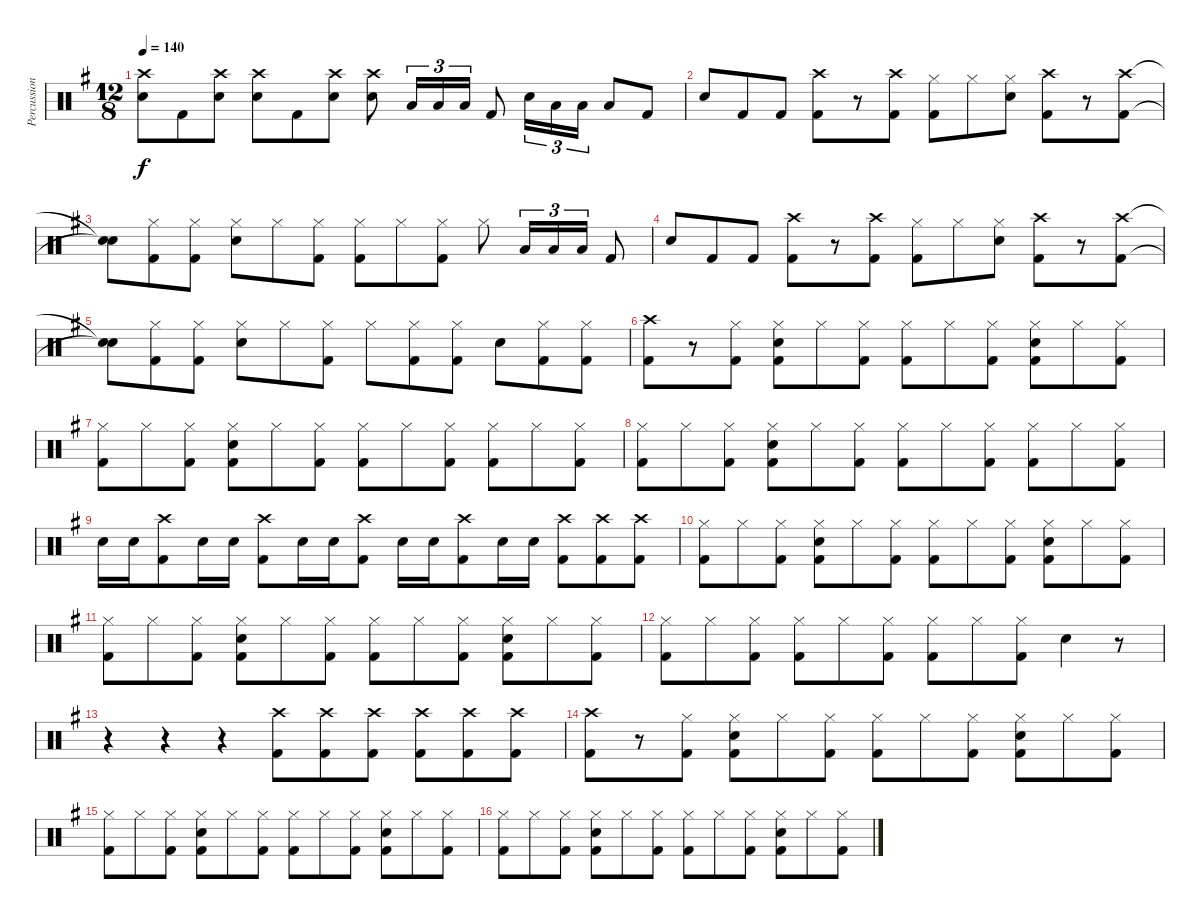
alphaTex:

\track ("Percussion" "Percussion") {instrument percussion}
\staff {score}
\articulation defaults
\ts (12 8)
\tempo 140
\clef neutral
\ks g
("Crash high (hit)" "Snare (hit) 2").8{dy f} "Kick (hit) 2".8 ("Crash high (hit)" "Snare (hit) 2").8 ("Crash high (hit)" "Snare (hit) 2").8 "Kick (hit) 2".8 ("Crash high (hit)" "Snare (hit) 2").8 ("Crash high (hit)" "Snare (hit) 2").8 "Low Tom (hit)".16{tu (3 2)} "Low Tom (hit)".16{tu (3 2)} "Low Tom (hit)".16{tu (3 2)} "Kick (hit) 2".8 "Snare (hit) 2".16{tu (3 2)} "Low Tom (hit)".16{tu (3 2)} "Low Tom (hit)".16{tu (3 2)} "Low Tom (hit)".8 "Kick (hit) 2".8 |
"Snare (hit) 2".8 "Kick (hit) 2".8 "Kick (hit) 2".8 ("Crash high (hit)" "Kick (hit) 2").8 r.8 ("Crash high (hit)" "Kick (hit) 2").8 ("Hi-Hat (closed)" "Kick (hit) 2").8 "Hi-Hat (closed)".8 ("Hi-Hat (closed)" "Snare (hit) 2").8 ("Crash high (hit)" "Kick (hit) 2").8 r.8 ("Crash high (hit)" "Kick (hit) 2").8 |
("Snare (hit)"{t} "Snare (hit)"{t}).8 ("Hi-Hat (closed)" "Kick (hit) 2").8 ("Hi-Hat (closed)" "Kick (hit) 2").8 ("Hi-Hat (closed)" "Snare (hit) 2").8 "Hi-Hat (closed)".8 ("Hi-Hat (closed)" "Kick (hit) 2").8 ("Hi-Hat (closed)" "Kick (hit) 2").8 "Hi-Hat (closed)".8 ("Hi-Hat (closed)" "Kick (hit) 2").8 "Hi-Hat (closed)".8 "Low Tom (hit)".16{tu (3 2)} "Low Tom (hit)".16{tu (3 2)} "Low Tom (hit)".16{tu (3 2)} "Kick (hit) 2".8 |
"Snare (hit) 2".8 "Kick (hit) 2".8 "Kick (hit) 2".8 ("Crash high (hit)" "Kick (hit) 2").8 r.8 ("Crash high (hit)" "Kick (hit) 2").8 ("Hi-Hat (closed)" "Kick (hit) 2").8 "Hi-Hat (closed)".8 ("Hi-Hat (closed)" "Snare (hit) 2").8 ("Crash high (hit)" "Kick (hit) 2").8 r.8 ("Crash high (hit)" "Kick (hit) 2").8 |
("Snare (hit)"{t} "Snare (hit)"{t}).8 ("Hi-Hat (closed)" "Kick (hit) 2").8 ("Hi-Hat (closed)" "Kick (hit) 2").8 ("Hi-Hat (closed)" "Snare (hit) 2").8 "Hi-Hat (closed)".8 ("Hi-Hat (closed)" "Kick (hit) 2").8 "Hi-Hat (closed)".8 ("Hi-Hat (closed)" "Kick (hit) 2").8 ("Hi-Hat (closed)" "Kick (hit) 2").8 "Snare (hit) 2".8 ("Hi-Hat (closed)" "Kick (hit) 2").8 ("Hi-Hat (closed)" "Kick (hit) 2").8 |
("Crash high (hit)" "Kick (hit) 2").8 r.8 ("Hi-Hat (closed)" "Kick (hit) 2").8 ("Hi-Hat (closed)" "Snare (hit) 2" "Kick (hit) 2").8 "Hi-Hat (closed)".8 ("Hi-Hat (closed)" "Kick (hit) 2").8 ("Hi-Hat (closed)" "Kick (hit) 2").8 "Hi-Hat (closed)".8 ("Hi-Hat (closed)" "Kick (hit) 2").8 ("Hi-Hat (closed)" "Snare (hit) 2" "Kick (hit) 2").8 "Hi-Hat (closed)".8 ("Hi-Hat (closed)" "Kick (hit) 2").8 |
("Hi-Hat (closed)" "Kick (hit) 2").8 "Hi-Hat (closed)".8 ("Hi-Hat (closed)" "Kick (hit) 2").8 ("Hi-Hat (closed)" "Snare (hit) 2" "Kick (hit) 2").8 "Hi-Hat (closed)".8 ("Hi-Hat (closed)" "Kick (hit) 2").8 ("Hi-Hat (closed)" "Kick (hit) 2").8 "Hi-Hat (closed)".8 ("Hi-Hat (closed)" "Kick (hit) 2").8 ("Hi-Hat (closed)" "Kick (hit) 2").8 "Hi-Hat (closed)".8 ("Hi-Hat (closed)" "Kick (hit) 2").8 |
("Hi-Hat (closed)" "Kick (hit) 2").8 "Hi-Hat (closed)".8 ("Hi-Hat (closed)" "Kick (hit) 2").8 ("Hi-Hat (closed)" "Snare (hit) 2" "Kick (hit) 2").8 "Hi-Hat (closed)".8 ("Hi-Hat (closed)" "Kick (hit) 2").8 ("Hi-Hat (closed)" "Kick (hit) 2").8 "Hi-Hat (closed)".8 ("Hi-Hat (closed)" "Kick (hit) 2").8 ("Hi-Hat (closed)" "Kick (hit) 2").8 "Hi-Hat (closed)".8 ("Hi-Hat (closed)" "Kick (hit) 2").8 |
"Snare (hit) 2".16 "Snare (hit) 2".16 ("Crash high (hit)" "Kick (hit) 2").8 "Snare (hit) 2".16 "Snare (hit) 2".16 ("Crash high (hit)" "Kick (hit) 2").8 "Snare (hit) 2".16 "Snare (hit) 2".16 ("Crash high (hit)" "Kick (hit) 2").8 "Snare (hit) 2".16 "Snare (hit) 2".16 ("Crash high (hit)" "Kick (hit) 2").8 "Snare (hit) 2".16 "Snare (hit) 2".16 ("Crash high (hit)" "Kick (hit) 2").8 ("Crash high (hit)" "Kick (hit) 2").8 ("Crash high (hit)" "Kick (hit) 2").8 |
("Hi-Hat (closed)" "Kick (hit) 2").8 "Hi-Hat (closed)".8 ("Hi-Hat (closed)" "Kick (hit) 2").8 ("Hi-Hat (closed)" "Snare (hit) 2" "Kick (hit) 2").8 "Hi-Hat (closed)".8 ("Hi-Hat (closed)" "Kick (hit) 2").8 ("Hi-Hat (closed)" "Kick (hit) 2").8 "Hi-Hat (closed)".8 ("Hi-Hat (closed)" "Kick (hit) 2").8 ("Hi-Hat (closed)" "Snare (hit) 2" "Kick (hit) 2").8 "Hi-Hat (closed)".8 ("Hi-Hat (closed)" "Kick (hit) 2").8 |
("Hi-Hat (closed)" "Kick (hit) 2").8 "Hi-Hat (closed)".8 ("Hi-Hat (closed)" "Kick (hit) 2").8 ("Hi-Hat (closed)" "Snare (hit) 2" "Kick (hit) 2").8 "Hi-Hat (closed)".8 ("Hi-Hat (closed)" "Kick (hit) 2").8 ("Hi-Hat (closed)" "Kick (hit) 2").8 "Hi-Hat (closed)".8 ("Hi-Hat (closed)" "Kick (hit) 2").8 ("Hi-Hat (closed)" "Snare (hit) 2" "Kick (hit) 2").8 "Hi-Hat (closed)".8 ("Hi-Hat (closed)" "Kick (hit) 2").8 |
("Hi-Hat (closed)" "Kick (hit) 2").8 "Hi-Hat (closed)".8 ("Hi-Hat (closed)" "Kick (hit) 2").8 ("Hi-Hat (closed)" "Kick (hit) 2").8 "Hi-Hat (closed)".8 ("Hi-Hat (closed)" "Kick (hit) 2").8 ("Hi-Hat (closed)" "Kick (hit) 2").8 "Hi-Hat (closed)".8 ("Hi-Hat (closed)" "Kick (hit) 2").8 "Snare (hit) 2".4 r.8 |
r.4 r.4 r.4 ("Crash high (hit)" "Kick (hit) 2").8 ("Crash high (hit)" "Kick (hit) 2").8 ("Crash high (hit)" "Kick (hit) 2").8 ("Crash high (hit)" "Kick (hit) 2").8 ("Crash high (hit)" "Kick (hit) 2").8 ("Crash high (hit)" "Kick (hit) 2").8 |
("Crash high (hit)" "Kick (hit) 2").8 r.8 ("Hi-Hat (closed)" "Kick (hit) 2").8 ("Hi-Hat (closed)" "Snare (hit) 2" "Kick (hit) 2").8 "Hi-Hat (closed)".8 ("Hi-Hat (closed)" "Kick (hit) 2").8 ("Hi-Hat (closed)" "Kick (hit) 2").8 "Hi-Hat (closed)".8 ("Hi-Hat (closed)" "Kick (hit) 2").8 ("Hi-Hat (closed)" "Snare (hit) 2" "Kick (hit) 2").8 "Hi-Hat (closed)".8 ("Hi-Hat (closed)" "Kick (hit) 2").8 |
("Hi-Hat (closed)" "Kick (hit) 2").8 "Hi-Hat (closed)".8 ("Hi-Hat (closed)" "Kick (hit) 2").8 ("Hi-Hat (closed)" "Snare (hit) 2" "Kick (hit) 2").8 "Hi-Hat (closed)".8 ("Hi-Hat (closed)" "Kick (hit) 2").8 ("Hi-Hat (closed)" "Kick (hit) 2").8 "Hi-Hat (closed)".8 ("Hi-Hat (closed)" "Kick (hit) 2").8 ("Hi-Hat (closed)" "Snare (hit) 2" "Kick (hit) 2").8 "Hi-Hat (closed)".8 ("Hi-Hat (closed)" "Kick (hit) 2").8 |
("Hi-Hat (closed)" "Kick (hit) 2").8 "Hi-Hat (closed)".8 ("Hi-Hat (closed)" "Kick (hit) 2").8 ("Hi-Hat (closed)" "Snare (hit) 2" "Kick (hit) 2").8 "Hi-Hat (closed)".8 ("Hi-Hat (closed)" "Kick (hit) 2").8 ("Hi-Hat (closed)" "Kick (hit) 2").8 "Hi-Hat (closed)".8 ("Hi-Hat (closed)" "Kick (hit) 2").8 ("Hi-Hat (closed)" "Snare (hit) 2" "Kick (hit) 2").8 "Hi-Hat (closed)".8 ("Hi-Hat (closed)" "Kick (hit) 2").8
